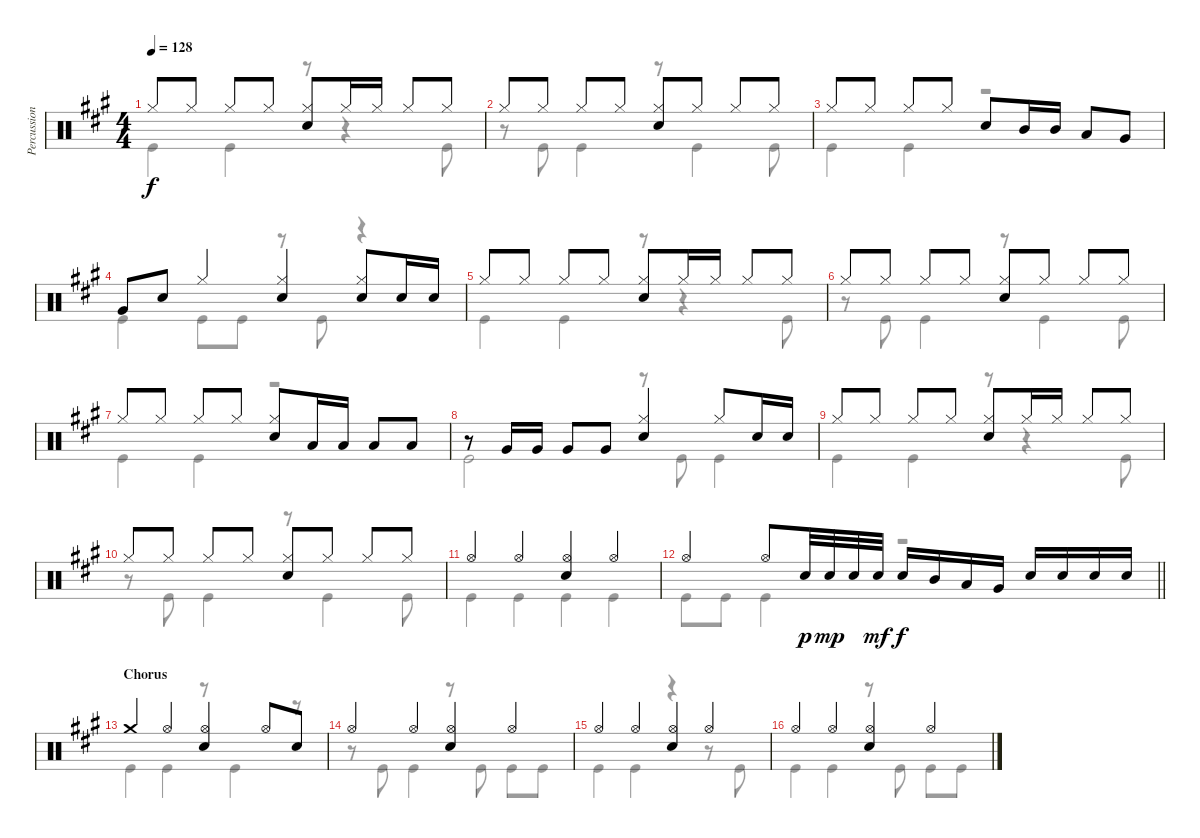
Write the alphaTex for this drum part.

\track ("Percussion" "Percussion") {instrument percussion}
\staff {score}
\articulation defaults
\voice
\ts (4 4)
\tempo 128
\clef neutral
\ks f#minor "Hi-Hat (closed)".8{dy f} "Hi-Hat (closed)".8 "Hi-Hat (closed)".8 "Hi-Hat (closed)".8
("Hi-Hat (closed)" "Electric Snare (hit)").8 "Hi-Hat (closed)".16 "Hi-Hat (closed)".16 "Hi-Hat (closed)".8 "Hi-Hat (closed)".8 |
"Hi-Hat (closed)".8 "Hi-Hat (closed)".8 "Hi-Hat (closed)".8 "Hi-Hat (closed)".8 ("Hi-Hat (closed)" "Electric Snare (hit)").8 "Hi-Hat (closed)".8 "Hi-Hat (closed)".8 "Hi-Hat (closed)".8 |
"Hi-Hat (closed)".8 "Hi-Hat (closed)".8 "Hi-Hat (closed)".8 "Hi-Hat (closed)".8 "Electric Snare (hit)".8 "Mid Tom (hit)".16 "Mid Tom (hit)".16 "Low Tom (hit)".8 "Very Low Tom (hit)".8 |
"Very Low Tom (hit)".8 "Electric Snare (hit)".8 "Hi-Hat (closed)".4 ("Hi-Hat (closed)" "Electric Snare (hit)").4 ("Hi-Hat (closed)" "Electric Snare (hit)").8 "Electric Snare (hit)".16 "Electric Snare (hit)".16 |
"Hi-Hat (closed)".8 "Hi-Hat (closed)".8 "Hi-Hat (closed)".8 "Hi-Hat (closed)".8 ("Hi-Hat (closed)" "Electric Snare (hit)").8 "Hi-Hat (closed)".16 "Hi-Hat (closed)".16 "Hi-Hat (closed)".8 "Hi-Hat (closed)".8 |
"Hi-Hat (closed)".8 "Hi-Hat (closed)".8 "Hi-Hat (closed)".8 "Hi-Hat (closed)".8 ("Hi-Hat (closed)" "Electric Snare (hit)").8 "Hi-Hat (closed)".8 "Hi-Hat (closed)".8 "Hi-Hat (closed)".8 |
"Hi-Hat (closed)".8 "Hi-Hat (closed)".8 "Hi-Hat (closed)".8 "Hi-Hat (closed)".8 ("Hi-Hat (closed)" "Electric Snare (hit)").8 "Low Tom (hit)".16 "Low Tom (hit)".16 "Low Tom (hit)".8 "Low Tom (hit)".8 |
r.8 "Very Low Tom (hit)".16 "Very Low Tom (hit)".16 "Very Low Tom (hit)".8 "Very Low Tom (hit)".8 ("Hi-Hat (closed)" "Electric Snare (hit)").4 "Hi-Hat (closed)".8 "Electric Snare (hit)".16 "Electric Snare (hit)".16 |
"Hi-Hat (closed)".8 "Hi-Hat (closed)".8 "Hi-Hat (closed)".8 "Hi-Hat (closed)".8 ("Hi-Hat (closed)" "Electric Snare (hit)").8 "Hi-Hat (closed)".16 "Hi-Hat (closed)".16 "Hi-Hat (closed)".8 "Hi-Hat (closed)".8 |
"Hi-Hat (closed)".8 "Hi-Hat (closed)".8 "Hi-Hat (closed)".8 "Hi-Hat (closed)".8 ("Hi-Hat (closed)" "Electric Snare (hit)").8 "Hi-Hat (closed)".8 "Hi-Hat (closed)".8 "Hi-Hat (closed)".8 |
"Hi-Hat (open)".4 "Hi-Hat (open)".4 ("Hi-Hat (open)" "Electric Snare (hit)").4 "Hi-Hat (open)".4 |
\barLineRight lightlight "Hi-Hat (open)".4 "Hi-Hat (open)".8 "Electric Snare (hit)".32{dy p} "Electric Snare (hit)".32{dy mp} "Electric Snare (hit)".32 "Electric Snare (hit)".32{dy mf} "Electric Snare (hit)".16{dy f} "Mid Tom (hit)".16 "Low Tom (hit)".16 "Very Low Tom (hit)".16 "Electric Snare (hit)".16 "Electric Snare (hit)".16 "Electric Snare (hit)".16 "Electric Snare (hit)".16
|
\section ("" "Chorus")
"Crash medium (hit)".4 "Hi-Hat (open)".4 ("Hi-Hat (open)" "Electric Snare (hit)").4 "Hi-Hat (open)".8 "Electric Snare (hit)".8 |
"Hi-Hat (open)".4 "Hi-Hat (open)".4 ("Hi-Hat (open)" "Electric Snare (hit)").4 "Hi-Hat (open)".4 |
"Hi-Hat (open)".4 "Hi-Hat (open)".4 ("Hi-Hat (open)" "Electric Snare (hit)").4 "Hi-Hat (open)".4 |
"Hi-Hat (open)".4 "Hi-Hat (open)".4 ("Hi-Hat (open)" "Electric Snare (hit)").4 "Hi-Hat (open)".4
\voice
\clef neutral
\ottava regular
\simile none
\ks f#minor "Kick (hit)".4{dy f} "Kick (hit)".4
r.8 r.4 "Kick (hit)".8 |
r.8 "Kick (hit)".8 "Kick (hit)".4 r.8 "Kick (hit)".4 "Kick (hit)".8 |
"Kick (hit)".4 "Kick (hit)".4 r.2 |
"Kick (hit)".4 "Kick (hit)".8 "Kick (hit)".8 r.8 "Kick (hit)".8 r.4 |
"Kick (hit)".4 "Kick (hit)".4 r.8 r.4 "Kick (hit)".8 |
r.8 "Kick (hit)".8 "Kick (hit)".4 r.8 "Kick (hit)".4 "Kick (hit)".8 |
"Kick (hit)".4 "Kick (hit)".4 r.2 |
"Kick (hit)".2 r.8 "Kick (hit)".8 "Kick (hit)".4 |
"Kick (hit)".4 "Kick (hit)".4 r.8 r.4 "Kick (hit)".8 |
r.8 "Kick (hit)".8 "Kick (hit)".4 r.8 "Kick (hit)".4 "Kick (hit)".8 |
"Kick (hit)".4 "Kick (hit)".4 "Kick (hit)".4 "Kick (hit)".4 |
\barLineRight lightlight "Kick (hit)".8 "Kick (hit)".8 "Kick (hit)".4
r.2 |
"Kick (hit)".4 "Kick (hit)".4 r.8 "Kick (hit)".4 r.8 |
r.8 "Kick (hit)".8 "Kick (hit)".4 r.8 "Kick (hit)".8 "Kick (hit)".8 "Kick (hit)".8 |
"Kick (hit)".4 "Kick (hit)".4 r.4 r.8 "Kick (hit)".8 |
"Kick (hit)".4 "Kick (hit)".4 r.8 "Kick (hit)".8 "Kick (hit)".8 "Kick (hit)".8
